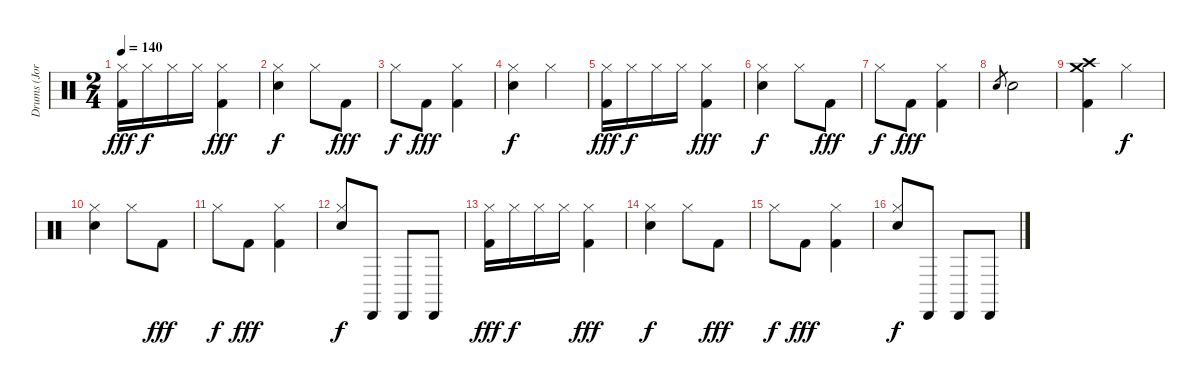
\track ("Drums (Jordan Hastings)" "Drums (Jor") {instrument percussion}
\staff {score}
\articulation defaults
\ts (2 4)
\tempo 140
\clef neutral
\ks c
("Hi-Hat (closed)" "Kick (hit) 2").16{dy fff} "Hi-Hat (closed)".16{dy f} "Hi-Hat (closed)".16 "Hi-Hat (closed)".16 ("Hi-Hat (closed)" "Kick (hit) 2").4{dy fff} |
("Hi-Hat (closed)" "Electric Snare (hit)").4{dy f} "Hi-Hat (closed)".8 "Kick (hit) 2".8{dy fff} |
"Hi-Hat (closed)".8{dy f} "Kick (hit) 2".8{dy fff} ("Hi-Hat (closed)" "Kick (hit) 2").4 |
("Hi-Hat (closed)" "Electric Snare (hit)").4{dy f} "Hi-Hat (closed)".4 |
("Hi-Hat (closed)" "Kick (hit) 2").16{dy fff} "Hi-Hat (closed)".16{dy f} "Hi-Hat (closed)".16 "Hi-Hat (closed)".16 ("Hi-Hat (closed)" "Kick (hit) 2").4{dy fff} |
("Hi-Hat (closed)" "Electric Snare (hit)").4{dy f} "Hi-Hat (closed)".8 "Kick (hit) 2".8{dy fff} |
"Hi-Hat (closed)".8{dy f} "Kick (hit) 2".8{dy fff} ("Hi-Hat (closed)" "Kick (hit) 2").4 |
"Electric Snare (hit)".8{gr} "Electric Snare (hit)".2 |
("Crash medium (hit)" "Crash high (hit)" "Kick (hit) 2").4 "Hi-Hat (closed)".4{dy f} |
("Hi-Hat (closed)" "Electric Snare (hit)").4 "Hi-Hat (closed)".8 "Kick (hit) 2".8{dy fff} |
"Hi-Hat (closed)".8{dy f} "Kick (hit) 2".8{dy fff} ("Hi-Hat (closed)" "Kick (hit) 2").4 |
("Hi-Hat (closed)" "Electric Snare (hit)").8{dy f} "Cabasa (hit)".8 "Cabasa (hit)".8 "Cabasa (hit)".8 |
("Hi-Hat (closed)" "Kick (hit) 2").16{dy fff} "Hi-Hat (closed)".16{dy f} "Hi-Hat (closed)".16 "Hi-Hat (closed)".16 ("Hi-Hat (closed)" "Kick (hit) 2").4{dy fff} |
("Hi-Hat (closed)" "Electric Snare (hit)").4{dy f} "Hi-Hat (closed)".8 "Kick (hit) 2".8{dy fff} |
"Hi-Hat (closed)".8{dy f} "Kick (hit) 2".8{dy fff} ("Hi-Hat (closed)" "Kick (hit) 2").4 |
("Hi-Hat (closed)" "Electric Snare (hit)").8{dy f} "Cabasa (hit)".8 "Cabasa (hit)".8 "Cabasa (hit)".8
